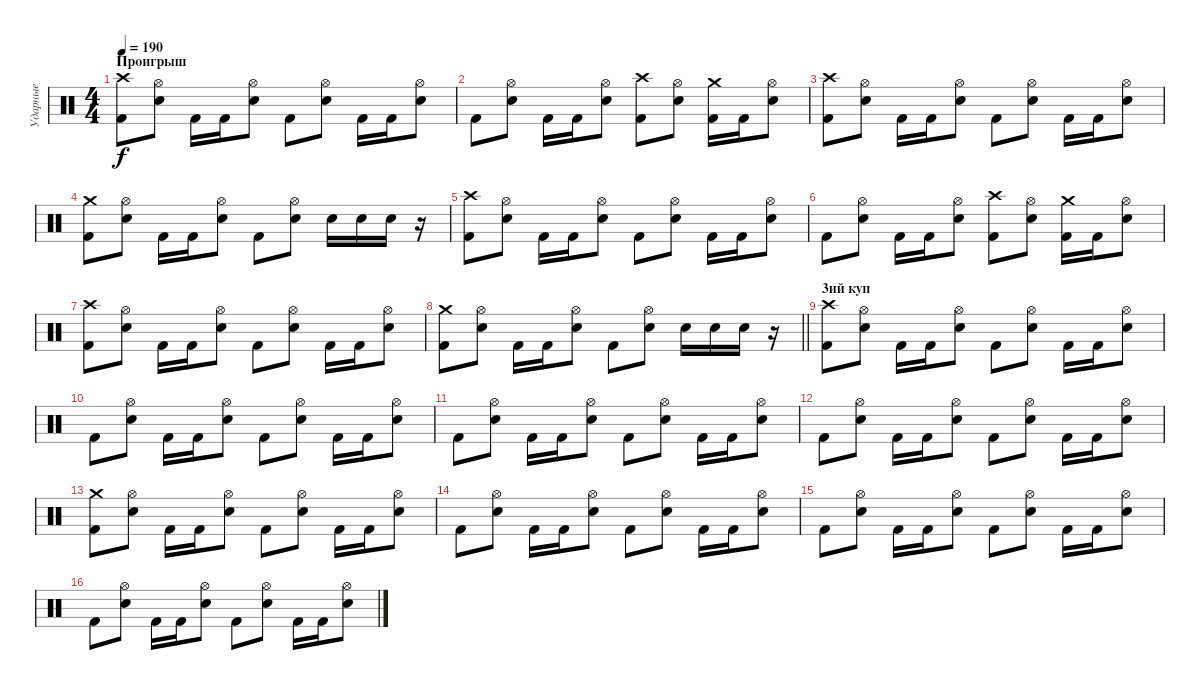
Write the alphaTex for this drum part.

\track ("Ударные" "Ударные") {instrument percussion}
\staff {score}
\articulation defaults
\ts (4 4)
\section ("" "Проигрыш")
\tempo 190
\clef neutral
\ks c
("Crash high (hit)" "Kick (hit) 2").8{dy f} ("Hi-Hat (open)" "Electric Snare (hit)").8 "Kick (hit) 2".16 "Kick (hit) 2".16 ("Hi-Hat (open)" "Electric Snare (hit)").8 "Kick (hit) 2".8 ("Hi-Hat (open)" "Electric Snare (hit)").8 "Kick (hit) 2".16 "Kick (hit) 2".16 ("Hi-Hat (open)" "Electric Snare (hit)").8 |
"Kick (hit) 2".8 ("Hi-Hat (open)" "Electric Snare (hit)").8 "Kick (hit) 2".16 "Kick (hit) 2".16 ("Hi-Hat (open)" "Electric Snare (hit)").8 ("Crash high (hit)" "Kick (hit) 2").8 ("Hi-Hat (open)" "Electric Snare (hit)").8 ("Crash medium (hit)" "Kick (hit) 2").16 "Kick (hit) 2".16 ("Hi-Hat (open)" "Electric Snare (hit)").8 |
("Crash high (hit)" "Kick (hit) 2").8 ("Hi-Hat (open)" "Electric Snare (hit)").8 "Kick (hit) 2".16 "Kick (hit) 2".16 ("Hi-Hat (open)" "Electric Snare (hit)").8 "Kick (hit) 2".8 ("Hi-Hat (open)" "Electric Snare (hit)").8 "Kick (hit) 2".16 "Kick (hit) 2".16 ("Hi-Hat (open)" "Electric Snare (hit)").8 |
("Crash medium (hit)" "Kick (hit) 2").8 ("Hi-Hat (open)" "Electric Snare (hit)").8 "Kick (hit) 2".16 "Kick (hit) 2".16 ("Hi-Hat (open)" "Electric Snare (hit)").8 "Kick (hit) 2".8 ("Hi-Hat (open)" "Electric Snare (hit)").8 "Electric Snare (hit)".16 "Electric Snare (hit)".16 "Electric Snare (hit)".16 r.16 |
("Crash high (hit)" "Kick (hit) 2").8 ("Hi-Hat (open)" "Electric Snare (hit)").8 "Kick (hit) 2".16 "Kick (hit) 2".16 ("Hi-Hat (open)" "Electric Snare (hit)").8 "Kick (hit) 2".8 ("Hi-Hat (open)" "Electric Snare (hit)").8 "Kick (hit) 2".16 "Kick (hit) 2".16 ("Hi-Hat (open)" "Electric Snare (hit)").8 |
"Kick (hit) 2".8 ("Hi-Hat (open)" "Electric Snare (hit)").8 "Kick (hit) 2".16 "Kick (hit) 2".16 ("Hi-Hat (open)" "Electric Snare (hit)").8 ("Crash high (hit)" "Kick (hit) 2").8 ("Hi-Hat (open)" "Electric Snare (hit)").8 ("Crash medium (hit)" "Kick (hit) 2").16 "Kick (hit) 2".16 ("Hi-Hat (open)" "Electric Snare (hit)").8 |
("Crash high (hit)" "Kick (hit) 2").8 ("Hi-Hat (open)" "Electric Snare (hit)").8 "Kick (hit) 2".16 "Kick (hit) 2".16 ("Hi-Hat (open)" "Electric Snare (hit)").8 "Kick (hit) 2".8 ("Hi-Hat (open)" "Electric Snare (hit)").8 "Kick (hit) 2".16 "Kick (hit) 2".16 ("Hi-Hat (open)" "Electric Snare (hit)").8 |
\barLineRight lightlight
("Crash medium (hit)" "Kick (hit) 2").8 ("Hi-Hat (open)" "Electric Snare (hit)").8 "Kick (hit) 2".16 "Kick (hit) 2".16 ("Hi-Hat (open)" "Electric Snare (hit)").8 "Kick (hit) 2".8 ("Hi-Hat (open)" "Electric Snare (hit)").8 "Electric Snare (hit)".16 "Electric Snare (hit)".16 "Electric Snare (hit)".16 r.16 |
\section ("" "3ий куп")
("Crash high (hit)" "Kick (hit) 2").8 ("Hi-Hat (open)" "Electric Snare (hit)").8 "Kick (hit) 2".16 "Kick (hit) 2".16 ("Hi-Hat (open)" "Electric Snare (hit)").8 "Kick (hit) 2".8 ("Hi-Hat (open)" "Electric Snare (hit)").8 "Kick (hit) 2".16 "Kick (hit) 2".16 ("Hi-Hat (open)" "Electric Snare (hit)").8 |
"Kick (hit) 2".8 ("Hi-Hat (open)" "Electric Snare (hit)").8 "Kick (hit) 2".16 "Kick (hit) 2".16 ("Hi-Hat (open)" "Electric Snare (hit)").8 "Kick (hit) 2".8 ("Hi-Hat (open)" "Electric Snare (hit)").8 "Kick (hit) 2".16 "Kick (hit) 2".16 ("Hi-Hat (open)" "Electric Snare (hit)").8 |
"Kick (hit) 2".8 ("Hi-Hat (open)" "Electric Snare (hit)").8 "Kick (hit) 2".16 "Kick (hit) 2".16 ("Hi-Hat (open)" "Electric Snare (hit)").8 "Kick (hit) 2".8 ("Hi-Hat (open)" "Electric Snare (hit)").8 "Kick (hit) 2".16 "Kick (hit) 2".16 ("Hi-Hat (open)" "Electric Snare (hit)").8 |
"Kick (hit) 2".8 ("Hi-Hat (open)" "Electric Snare (hit)").8 "Kick (hit) 2".16 "Kick (hit) 2".16 ("Hi-Hat (open)" "Electric Snare (hit)").8 "Kick (hit) 2".8 ("Hi-Hat (open)" "Electric Snare (hit)").8 "Kick (hit) 2".16 "Kick (hit) 2".16 ("Hi-Hat (open)" "Electric Snare (hit)").8 |
("Crash medium (hit)" "Kick (hit) 2").8 ("Hi-Hat (open)" "Electric Snare (hit)").8 "Kick (hit) 2".16 "Kick (hit) 2".16 ("Hi-Hat (open)" "Electric Snare (hit)").8 "Kick (hit) 2".8 ("Hi-Hat (open)" "Electric Snare (hit)").8 "Kick (hit) 2".16 "Kick (hit) 2".16 ("Hi-Hat (open)" "Electric Snare (hit)").8 |
"Kick (hit) 2".8 ("Hi-Hat (open)" "Electric Snare (hit)").8 "Kick (hit) 2".16 "Kick (hit) 2".16 ("Hi-Hat (open)" "Electric Snare (hit)").8 "Kick (hit) 2".8 ("Hi-Hat (open)" "Electric Snare (hit)").8 "Kick (hit) 2".16 "Kick (hit) 2".16 ("Hi-Hat (open)" "Electric Snare (hit)").8 |
"Kick (hit) 2".8 ("Hi-Hat (open)" "Electric Snare (hit)").8 "Kick (hit) 2".16 "Kick (hit) 2".16 ("Hi-Hat (open)" "Electric Snare (hit)").8 "Kick (hit) 2".8 ("Hi-Hat (open)" "Electric Snare (hit)").8 "Kick (hit) 2".16 "Kick (hit) 2".16 ("Hi-Hat (open)" "Electric Snare (hit)").8 |
"Kick (hit) 2".8 ("Hi-Hat (open)" "Electric Snare (hit)").8 "Kick (hit) 2".16 "Kick (hit) 2".16 ("Hi-Hat (open)" "Electric Snare (hit)").8 "Kick (hit) 2".8 ("Hi-Hat (open)" "Electric Snare (hit)").8 "Kick (hit) 2".16 "Kick (hit) 2".16 ("Hi-Hat (open)" "Electric Snare (hit)").8
